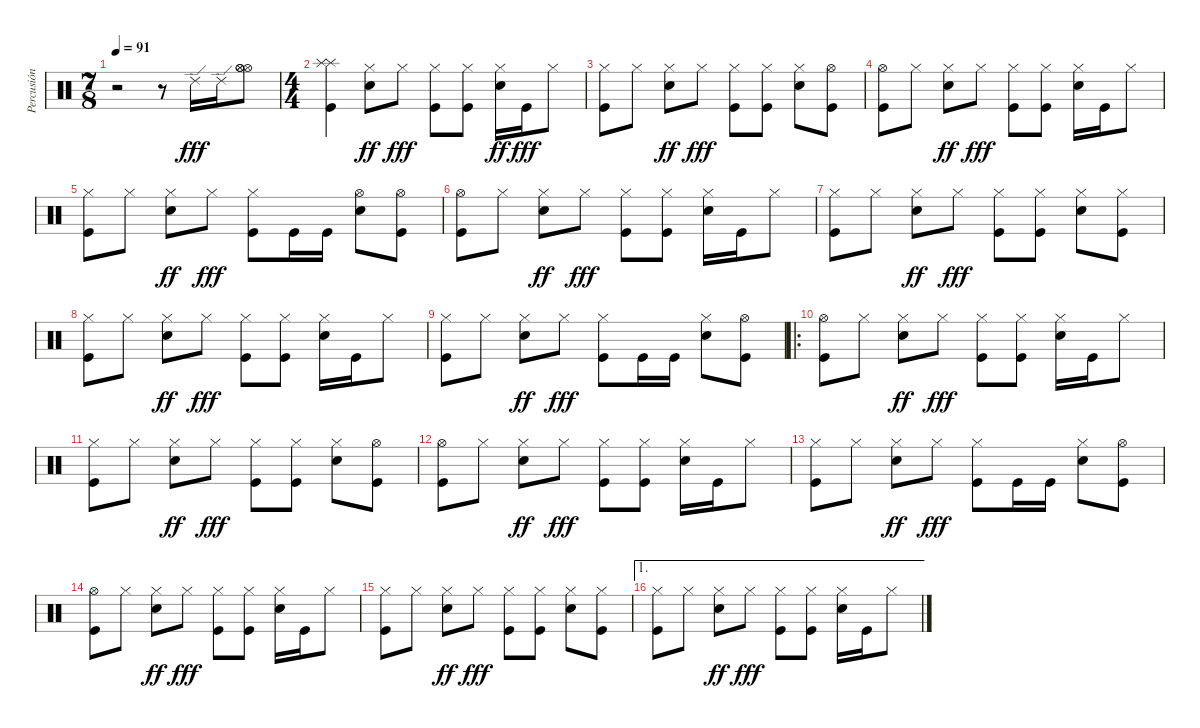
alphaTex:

\track ("Percusión" "Percusión") {instrument percussion}
\staff {score}
\articulation defaults
\ts (7 8)
\tempo 91
\clef neutral
\ks c
r.2{dy fff} r.8 "Ride (edge) 2".16 "Ride (edge) 2".16 ("Hi-Hat (open)" "Hi-Hat (open)" "Hi-Hat (open)").8 |
\ts (4 4)
("Splash (hit)" "Splash (hit)" "Kick (hit)").4 ("Hi-Hat (closed)" "Electric Snare (hit)").8{dy ff} "Hi-Hat (closed)".8{dy fff} ("Hi-Hat (closed)" "Kick (hit)").8 ("Hi-Hat (closed)" "Kick (hit)").8 ("Hi-Hat (closed)" "Electric Snare (hit)").16{dy ff} "Kick (hit)".16{dy fff} "Hi-Hat (closed)".8 |
("Hi-Hat (closed)" "Kick (hit)").8 "Hi-Hat (closed)".8 ("Hi-Hat (closed)" "Electric Snare (hit)").8{dy ff} "Hi-Hat (closed)".8{dy fff} ("Hi-Hat (closed)" "Kick (hit)").8 ("Hi-Hat (closed)" "Kick (hit)").8 ("Hi-Hat (closed)" "Electric Snare (hit)").8 ("Hi-Hat (open)" "Kick (hit)").8 |
("Hi-Hat (open)" "Kick (hit)").8 "Hi-Hat (closed)".8 ("Hi-Hat (closed)" "Electric Snare (hit)").8{dy ff} "Hi-Hat (closed)".8{dy fff} ("Hi-Hat (closed)" "Kick (hit)").8 ("Hi-Hat (closed)" "Kick (hit)").8 ("Hi-Hat (closed)" "Electric Snare (hit)").16 "Kick (hit)".16 "Hi-Hat (closed)".8 |
("Hi-Hat (closed)" "Kick (hit)").8 "Hi-Hat (closed)".8 ("Hi-Hat (closed)" "Electric Snare (hit)").8{dy ff} "Hi-Hat (closed)".8{dy fff} ("Hi-Hat (closed)" "Kick (hit)").8 "Kick (hit)".16 "Kick (hit)".16 ("Hi-Hat (open)" "Electric Snare (hit)").8 ("Hi-Hat (open)" "Kick (hit)").8 |
("Hi-Hat (open)" "Kick (hit)").8 "Hi-Hat (closed)".8 ("Hi-Hat (closed)" "Electric Snare (hit)").8{dy ff} "Hi-Hat (closed)".8{dy fff} ("Hi-Hat (closed)" "Kick (hit)").8 ("Hi-Hat (closed)" "Kick (hit)").8 ("Hi-Hat (closed)" "Electric Snare (hit)").16 "Kick (hit)".16 "Hi-Hat (closed)".8 |
("Hi-Hat (closed)" "Kick (hit)").8 "Hi-Hat (closed)".8 ("Hi-Hat (closed)" "Electric Snare (hit)").8{dy ff} "Hi-Hat (closed)".8{dy fff} ("Hi-Hat (closed)" "Kick (hit)").8 ("Hi-Hat (closed)" "Kick (hit)").8 ("Hi-Hat (closed)" "Electric Snare (hit)").8 ("Hi-Hat (closed)" "Kick (hit)").8 |
("Hi-Hat (closed)" "Kick (hit)").8 "Hi-Hat (closed)".8 ("Hi-Hat (closed)" "Electric Snare (hit)").8{dy ff} "Hi-Hat (closed)".8{dy fff} ("Hi-Hat (closed)" "Kick (hit)").8 ("Hi-Hat (closed)" "Kick (hit)").8 ("Hi-Hat (closed)" "Electric Snare (hit)").16 "Kick (hit)".16 "Hi-Hat (closed)".8 |
("Hi-Hat (closed)" "Kick (hit)").8 "Hi-Hat (closed)".8 ("Hi-Hat (closed)" "Electric Snare (hit)").8{dy ff} "Hi-Hat (closed)".8{dy fff} ("Hi-Hat (closed)" "Kick (hit)").8 "Kick (hit)".16 "Kick (hit)".16 ("Hi-Hat (closed)" "Electric Snare (hit)").8 ("Hi-Hat (open)" "Kick (hit)").8 |
\ro
("Hi-Hat (open)" "Kick (hit)").8 "Hi-Hat (closed)".8 ("Hi-Hat (closed)" "Electric Snare (hit)").8{dy ff} "Hi-Hat (closed)".8{dy fff} ("Hi-Hat (closed)" "Kick (hit)").8 ("Hi-Hat (closed)" "Kick (hit)").8 ("Hi-Hat (closed)" "Electric Snare (hit)").16 "Kick (hit)".16 "Hi-Hat (closed)".8 |
("Hi-Hat (closed)" "Kick (hit)").8 "Hi-Hat (closed)".8 ("Hi-Hat (closed)" "Electric Snare (hit)").8{dy ff} "Hi-Hat (closed)".8{dy fff} ("Hi-Hat (closed)" "Kick (hit)").8 ("Hi-Hat (closed)" "Kick (hit)").8 ("Hi-Hat (closed)" "Electric Snare (hit)").8 ("Hi-Hat (open)" "Kick (hit)").8 |
("Hi-Hat (open)" "Kick (hit)").8 "Hi-Hat (closed)".8 ("Hi-Hat (closed)" "Electric Snare (hit)").8{dy ff} "Hi-Hat (closed)".8{dy fff} ("Hi-Hat (closed)" "Kick (hit)").8 ("Hi-Hat (closed)" "Kick (hit)").8 ("Hi-Hat (closed)" "Electric Snare (hit)").16 "Kick (hit)".16 "Hi-Hat (closed)".8 |
("Hi-Hat (closed)" "Kick (hit)").8 "Hi-Hat (closed)".8 ("Hi-Hat (closed)" "Electric Snare (hit)").8{dy ff} "Hi-Hat (closed)".8{dy fff} ("Hi-Hat (closed)" "Kick (hit)").8 "Kick (hit)".16 "Kick (hit)".16 ("Hi-Hat (closed)" "Electric Snare (hit)").8 ("Hi-Hat (open)" "Kick (hit)").8 |
("Hi-Hat (open)" "Kick (hit)").8 "Hi-Hat (closed)".8 ("Hi-Hat (closed)" "Electric Snare (hit)").8{dy ff} "Hi-Hat (closed)".8{dy fff} ("Hi-Hat (closed)" "Kick (hit)").8 ("Hi-Hat (closed)" "Kick (hit)").8 ("Hi-Hat (closed)" "Electric Snare (hit)").16 "Kick (hit)".16 "Hi-Hat (closed)".8 |
("Hi-Hat (closed)" "Kick (hit)").8 "Hi-Hat (closed)".8 ("Hi-Hat (closed)" "Electric Snare (hit)").8{dy ff} "Hi-Hat (closed)".8{dy fff} ("Hi-Hat (closed)" "Kick (hit)").8 ("Hi-Hat (closed)" "Kick (hit)").8 ("Hi-Hat (closed)" "Electric Snare (hit)").8 ("Hi-Hat (closed)" "Kick (hit)").8 |
\ae 1
("Hi-Hat (closed)" "Kick (hit)").8 "Hi-Hat (closed)".8 ("Hi-Hat (closed)" "Electric Snare (hit)").8{dy ff} "Hi-Hat (closed)".8{dy fff} ("Hi-Hat (closed)" "Kick (hit)").8 ("Hi-Hat (closed)" "Kick (hit)").8 ("Hi-Hat (closed)" "Electric Snare (hit)").16 "Kick (hit)".16 "Hi-Hat (closed)".8
